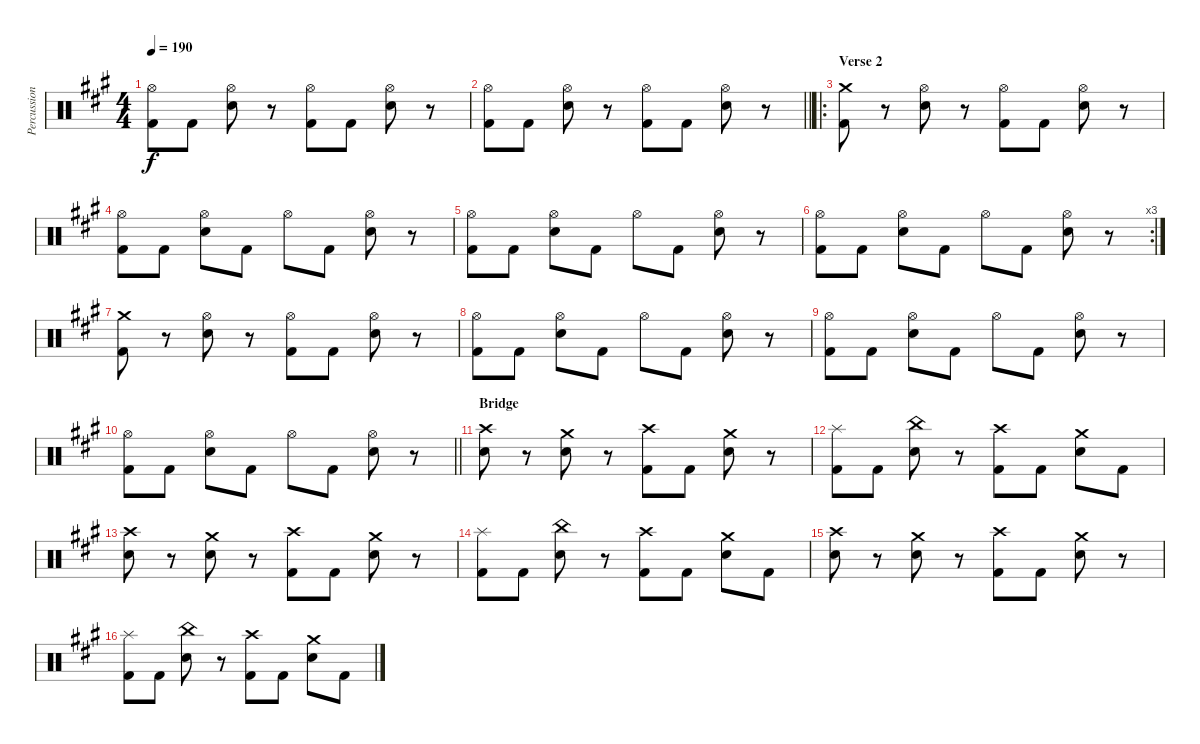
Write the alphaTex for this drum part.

\track ("Percussion" "Percussion") {instrument percussion}
\staff {score}
\articulation defaults
\ts (4 4)
\tempo 190
\clef neutral
\ks a
("Hi-Hat (open)" "Kick (hit) 2").8{dy f} "Kick (hit) 2".8 ("Hi-Hat (open)" "Snare (hit) 2").8 r.8 ("Hi-Hat (open)" "Kick (hit) 2").8 "Kick (hit) 2".8 ("Hi-Hat (open)" "Snare (hit) 2").8 r.8 |
\barLineRight lightlight
("Hi-Hat (open)" "Kick (hit) 2").8 "Kick (hit) 2".8 ("Hi-Hat (open)" "Snare (hit) 2").8 r.8 ("Hi-Hat (open)" "Kick (hit) 2").8 "Kick (hit) 2".8 ("Hi-Hat (open)" "Snare (hit) 2").8 r.8 |
\ro
\section ("" "Verse 2")
("Crash medium (hit)" "Kick (hit) 2").8 r.8 ("Hi-Hat (open)" "Snare (hit) 2").8 r.8 ("Hi-Hat (open)" "Kick (hit) 2").8 "Kick (hit) 2".8 ("Hi-Hat (open)" "Snare (hit) 2").8 r.8 |
("Hi-Hat (open)" "Kick (hit) 2").8 "Kick (hit) 2".8 ("Hi-Hat (open)" "Snare (hit) 2").8 "Kick (hit) 2".8 "Hi-Hat (open)".8 "Kick (hit) 2".8 ("Hi-Hat (open)" "Snare (hit) 2").8 r.8 |
("Hi-Hat (open)" "Kick (hit) 2").8 "Kick (hit) 2".8 ("Hi-Hat (open)" "Snare (hit) 2").8 "Kick (hit) 2".8 "Hi-Hat (open)".8 "Kick (hit) 2".8 ("Hi-Hat (open)" "Snare (hit) 2").8 r.8 |
\rc 3
("Hi-Hat (open)" "Kick (hit) 2").8 "Kick (hit) 2".8 ("Hi-Hat (open)" "Snare (hit) 2").8 "Kick (hit) 2".8 "Hi-Hat (open)".8 "Kick (hit) 2".8 ("Hi-Hat (open)" "Snare (hit) 2").8 r.8 |
("Crash medium (hit)" "Kick (hit) 2").8 r.8 ("Hi-Hat (open)" "Snare (hit) 2").8 r.8 ("Hi-Hat (open)" "Kick (hit) 2").8 "Kick (hit) 2".8 ("Hi-Hat (open)" "Snare (hit) 2").8 r.8 |
("Hi-Hat (open)" "Kick (hit) 2").8 "Kick (hit) 2".8 ("Hi-Hat (open)" "Snare (hit) 2").8 "Kick (hit) 2".8 "Hi-Hat (open)".8 "Kick (hit) 2".8 ("Hi-Hat (open)" "Snare (hit) 2").8 r.8 |
("Hi-Hat (open)" "Kick (hit) 2").8 "Kick (hit) 2".8 ("Hi-Hat (open)" "Snare (hit) 2").8 "Kick (hit) 2".8 "Hi-Hat (open)".8 "Kick (hit) 2".8 ("Hi-Hat (open)" "Snare (hit) 2").8 r.8 |
\barLineRight lightlight
("Hi-Hat (open)" "Kick (hit) 2").8 "Kick (hit) 2".8 ("Hi-Hat (open)" "Snare (hit) 2").8 "Kick (hit) 2".8 "Hi-Hat (open)".8 "Kick (hit) 2".8 ("Hi-Hat (open)" "Snare (hit) 2").8 r.8 |
\section ("" "Bridge")
("Crash high (hit)" "Snare (hit) 2").8 r.8 ("Crash medium (hit)" "Snare (hit) 2").8 r.8 ("Crash high (hit)" "Kick (hit) 2").8 "Kick (hit) 2".8 ("Crash medium (hit)" "Snare (hit) 2").8 r.8 |
("Splash (hit)" "Kick (hit) 2").8 "Kick (hit) 2".8 ("China (hit)" "Snare (hit) 2").8 r.8 ("Crash high (hit)" "Kick (hit) 2").8 "Kick (hit) 2".8 ("Crash medium (hit)" "Snare (hit) 2").8 "Kick (hit) 2".8 |
("Crash high (hit)" "Snare (hit) 2").8 r.8 ("Crash medium (hit)" "Snare (hit) 2").8 r.8 ("Crash high (hit)" "Kick (hit) 2").8 "Kick (hit) 2".8 ("Crash medium (hit)" "Snare (hit) 2").8 r.8 |
("Splash (hit)" "Kick (hit) 2").8 "Kick (hit) 2".8 ("China (hit)" "Snare (hit) 2").8 r.8 ("Crash high (hit)" "Kick (hit) 2").8 "Kick (hit) 2".8 ("Crash medium (hit)" "Snare (hit) 2").8 "Kick (hit) 2".8 |
("Crash high (hit)" "Snare (hit) 2").8 r.8 ("Crash medium (hit)" "Snare (hit) 2").8 r.8 ("Crash high (hit)" "Kick (hit) 2").8 "Kick (hit) 2".8 ("Crash medium (hit)" "Snare (hit) 2").8 r.8 |
("Splash (hit)" "Kick (hit) 2").8 "Kick (hit) 2".8 ("China (hit)" "Snare (hit) 2").8 r.8 ("Crash high (hit)" "Kick (hit) 2").8 "Kick (hit) 2".8 ("Crash medium (hit)" "Snare (hit) 2").8 "Kick (hit) 2".8
